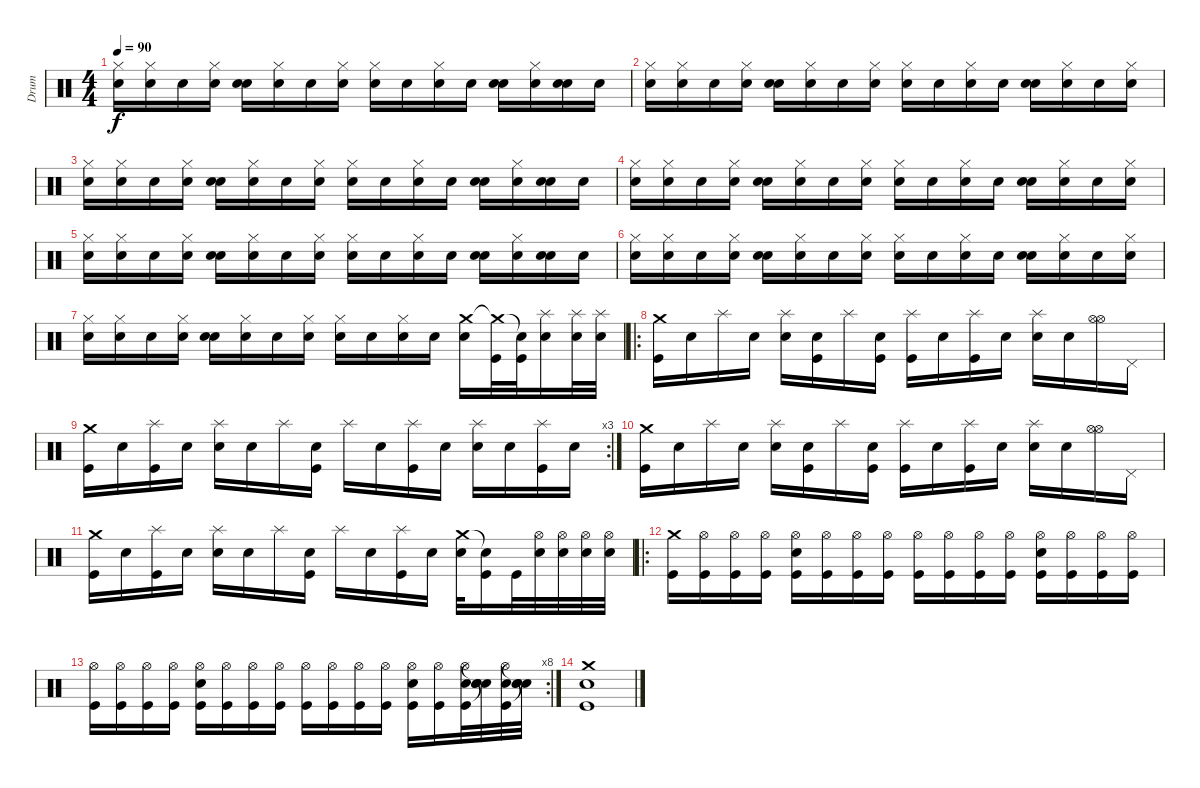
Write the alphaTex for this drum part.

\track ("Drum" "Drum") {instrument percussion}
\staff {score}
\articulation defaults
\ts (4 4)
\tempo 90
\clef neutral
\ks c
("Snare (hit)" "Hi-Hat (closed)").16{dy f} ("Snare (hit)" "Hi-Hat (closed)").16 "Snare (hit)".16 ("Snare (hit)" "Hi-Hat (closed)").16 ("Snare (hit)" "Snare (hit)").16 ("Snare (hit)" "Hi-Hat (closed)").16 "Snare (hit)".16 ("Snare (hit)" "Hi-Hat (closed)").16 ("Snare (hit)" "Hi-Hat (closed)").16 "Snare (hit)".16 ("Snare (hit)" "Hi-Hat (closed)").16 "Snare (hit)".16 ("Snare (hit)" "Snare (hit)").16 ("Snare (hit)" "Hi-Hat (closed)").16 ("Snare (hit)" "Snare (hit)").16 "Snare (hit)".16 |
("Snare (hit)" "Hi-Hat (closed)").16 ("Snare (hit)" "Hi-Hat (closed)").16 "Snare (hit)".16 ("Snare (hit)" "Hi-Hat (closed)").16 ("Snare (hit)" "Snare (hit)").16 ("Snare (hit)" "Hi-Hat (closed)").16 "Snare (hit)".16 ("Snare (hit)" "Hi-Hat (closed)").16 ("Snare (hit)" "Hi-Hat (closed)").16 "Snare (hit)".16 ("Snare (hit)" "Hi-Hat (closed)").16 "Snare (hit)".16 ("Snare (hit)" "Snare (hit)").16 ("Snare (hit)" "Hi-Hat (closed)").16 "Snare (hit)".16 ("Snare (hit)" "Hi-Hat (closed)").16 |
("Snare (hit)" "Hi-Hat (closed)").16 ("Snare (hit)" "Hi-Hat (closed)").16 "Snare (hit)".16 ("Snare (hit)" "Hi-Hat (closed)").16 ("Snare (hit)" "Snare (hit)").16 ("Snare (hit)" "Hi-Hat (closed)").16 "Snare (hit)".16 ("Snare (hit)" "Hi-Hat (closed)").16 ("Snare (hit)" "Hi-Hat (closed)").16 "Snare (hit)".16 ("Snare (hit)" "Hi-Hat (closed)").16 "Snare (hit)".16 ("Snare (hit)" "Snare (hit)").16 ("Snare (hit)" "Hi-Hat (closed)").16 ("Snare (hit)" "Snare (hit)").16 "Snare (hit)".16 |
("Snare (hit)" "Hi-Hat (closed)").16 ("Snare (hit)" "Hi-Hat (closed)").16 "Snare (hit)".16 ("Snare (hit)" "Hi-Hat (closed)").16 ("Snare (hit)" "Snare (hit)").16 ("Snare (hit)" "Hi-Hat (closed)").16 "Snare (hit)".16 ("Snare (hit)" "Hi-Hat (closed)").16 ("Snare (hit)" "Hi-Hat (closed)").16 "Snare (hit)".16 ("Snare (hit)" "Hi-Hat (closed)").16 "Snare (hit)".16 ("Snare (hit)" "Snare (hit)").16 ("Snare (hit)" "Hi-Hat (closed)").16 "Snare (hit)".16 ("Snare (hit)" "Hi-Hat (closed)").16 |
("Snare (hit)" "Hi-Hat (closed)").16 ("Snare (hit)" "Hi-Hat (closed)").16 "Snare (hit)".16 ("Snare (hit)" "Hi-Hat (closed)").16 ("Snare (hit)" "Snare (hit)").16 ("Snare (hit)" "Hi-Hat (closed)").16 "Snare (hit)".16 ("Snare (hit)" "Hi-Hat (closed)").16 ("Snare (hit)" "Hi-Hat (closed)").16 "Snare (hit)".16 ("Snare (hit)" "Hi-Hat (closed)").16 "Snare (hit)".16 ("Snare (hit)" "Snare (hit)").16 ("Snare (hit)" "Hi-Hat (closed)").16 ("Snare (hit)" "Snare (hit)").16 "Snare (hit)".16 |
("Snare (hit)" "Hi-Hat (closed)").16 ("Snare (hit)" "Hi-Hat (closed)").16 "Snare (hit)".16 ("Snare (hit)" "Hi-Hat (closed)").16 ("Snare (hit)" "Snare (hit)").16 ("Snare (hit)" "Hi-Hat (closed)").16 "Snare (hit)".16 ("Snare (hit)" "Hi-Hat (closed)").16 ("Snare (hit)" "Hi-Hat (closed)").16 "Snare (hit)".16 ("Snare (hit)" "Hi-Hat (closed)").16 "Snare (hit)".16 ("Snare (hit)" "Snare (hit)").16 ("Snare (hit)" "Hi-Hat (closed)").16 "Snare (hit)".16 ("Snare (hit)" "Hi-Hat (closed)").16 |
("Snare (hit)" "Hi-Hat (closed)").16 ("Snare (hit)" "Hi-Hat (closed)").16 "Snare (hit)".16 ("Snare (hit)" "Hi-Hat (closed)").16 ("Snare (hit)" "Snare (hit)").16 ("Snare (hit)" "Hi-Hat (closed)").16 "Snare (hit)".16 ("Snare (hit)" "Hi-Hat (closed)").16 ("Snare (hit)" "Hi-Hat (closed)").16 "Snare (hit)".16 ("Snare (hit)" "Hi-Hat (closed)").16 "Snare (hit)".16 ("Crash medium (hit)" "Snare (hit) 2").16 ("Crash medium (hit)"{t} "Kick (hit)").32 ("Snare (hit)"{t} "Kick (hit)").32 ("Splash (hit)" "Snare (hit) 2").16 ("Splash (hit)" "Snare (hit) 2").32 ("Splash (hit)" "Snare (hit) 2").32 |
\ro
("Crash medium (hit)" "Kick (hit)").16 "Snare (hit)".16 "Splash (hit)".16 "Snare (hit)".16 ("Splash (hit)" "Snare (hit) 2").16 ("Snare (hit)" "Kick (hit)").16 "Splash (hit)".16 ("Snare (hit)" "Kick (hit)").16 ("Splash (hit)" "Kick (hit)").16 "Snare (hit)".16 ("Splash (hit)" "Kick (hit)").16 "Snare (hit)".16 ("Splash (hit)" "Snare (hit) 2").16 "Snare (hit)".16 ("Hi-Hat (open)" "Hi-Hat (open)").16 "Pedal Hi-Hat (hit)".16 |
\rc 3
("Crash medium (hit)" "Kick (hit)").16 "Snare (hit)".16 ("Splash (hit)" "Kick (hit)").16 "Snare (hit)".16 ("Splash (hit)" "Snare (hit) 2").16 "Snare (hit)".16 "Splash (hit)".16 ("Snare (hit)" "Kick (hit)").16 "Splash (hit)".16 "Snare (hit)".16 ("Splash (hit)" "Kick (hit)").16 "Snare (hit)".16 ("Splash (hit)" "Snare (hit) 2").16 "Snare (hit)".16 ("Splash (hit)" "Kick (hit)").16 "Snare (hit)".16 |
("Crash medium (hit)" "Kick (hit)").16 "Snare (hit)".16 "Splash (hit)".16 "Snare (hit)".16 ("Splash (hit)" "Snare (hit) 2").16 ("Snare (hit)" "Kick (hit)").16 "Splash (hit)".16 ("Snare (hit)" "Kick (hit)").16 ("Splash (hit)" "Kick (hit)").16 "Snare (hit)".16 ("Splash (hit)" "Kick (hit)").16 "Snare (hit)".16 ("Splash (hit)" "Snare (hit) 2").16 "Snare (hit)".16 ("Hi-Hat (open)" "Hi-Hat (open)").16 "Pedal Hi-Hat (hit)".16 |
("Crash medium (hit)" "Kick (hit)").16 "Snare (hit)".16 ("Splash (hit)" "Kick (hit)").16 "Snare (hit)".16 ("Splash (hit)" "Snare (hit) 2").16 "Snare (hit)".16 "Splash (hit)".16 ("Snare (hit)" "Kick (hit)").16 "Splash (hit)".16 "Snare (hit)".16 ("Splash (hit)" "Kick (hit)").16 "Snare (hit)".16 ("Crash medium (hit)" "Snare (hit) 2").32 ("Snare (hit)"{t} "Kick (hit)").16 "Kick (hit)".32 ("Hi-Hat (open)" "Snare (hit) 2").32 ("Hi-Hat (open)" "Snare (hit) 2").32 ("Hi-Hat (open)" "Snare (hit) 2").32 ("Hi-Hat (open)" "Snare (hit) 2").32 |
\ro
("Crash medium (hit)" "Kick (hit)").16 ("Hi-Hat (open)" "Kick (hit)").16 ("Hi-Hat (open)" "Kick (hit)").16 ("Hi-Hat (open)" "Kick (hit)").16 ("Hi-Hat (open)" "Snare (hit) 2" "Kick (hit)").16 ("Hi-Hat (open)" "Kick (hit)").16 ("Hi-Hat (open)" "Kick (hit)").16 ("Hi-Hat (open)" "Kick (hit)").16 ("Hi-Hat (open)" "Kick (hit)").16 ("Hi-Hat (open)" "Kick (hit)").16 ("Hi-Hat (open)" "Kick (hit)").16 ("Hi-Hat (open)" "Kick (hit)").16 ("Hi-Hat (open)" "Snare (hit) 2" "Kick (hit)").16 ("Hi-Hat (open)" "Kick (hit)").16 ("Hi-Hat (open)" "Kick (hit)").16 ("Hi-Hat (open)" "Kick (hit)").16 |
\rc 8
("Hi-Hat (open)" "Kick (hit)").16 ("Hi-Hat (open)" "Kick (hit)").16 ("Hi-Hat (open)" "Kick (hit)").16 ("Hi-Hat (open)" "Kick (hit)").16 ("Hi-Hat (open)" "Snare (hit) 2" "Kick (hit)").16 ("Hi-Hat (open)" "Kick (hit)").16 ("Hi-Hat (open)" "Kick (hit)").16 ("Hi-Hat (open)" "Kick (hit)").16 ("Hi-Hat (open)" "Kick (hit)").16 ("Hi-Hat (open)" "Kick (hit)").16 ("Hi-Hat (open)" "Kick (hit)").16 ("Hi-Hat (open)" "Kick (hit)").16 ("Hi-Hat (open)" "Snare (hit) 2" "Kick (hit)").16 ("Hi-Hat (open)" "Kick (hit)").16 ("Hi-Hat (open)" "Snare (hit) 2" "Kick (hit)").32 ("Snare (hit)"{t} "Snare (hit) 2" "Snare (hit)"{t}).32 ("Hi-Hat (open)" "Snare (hit) 2" "Kick (hit)").32 ("Snare (hit)"{t} "Snare (hit) 2" "Snare (hit)"{t}).32 |
("Crash medium (hit)" "Snare (hit) 2" "Kick (hit)").1
